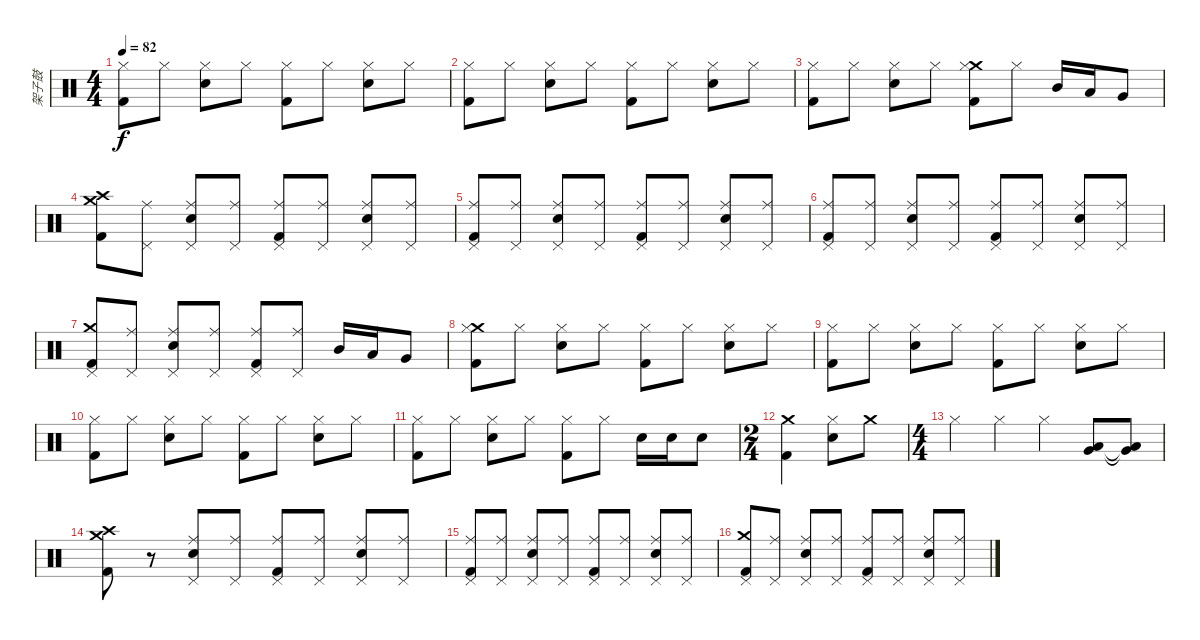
\track ("架子鼓" "架子鼓") {instrument percussion}
\staff {score}
\articulation defaults
\ts (4 4)
\tempo 82
\clef neutral
\ks c
("Hi-Hat (closed)" "Kick (hit) 2").8{dy f} "Hi-Hat (closed)".8 ("Hi-Hat (closed)" "Snare (hit) 2").8 "Hi-Hat (closed)".8 ("Hi-Hat (closed)" "Kick (hit) 2").8 "Hi-Hat (closed)".8 ("Hi-Hat (closed)" "Snare (hit) 2").8 "Hi-Hat (closed)".8 |
("Hi-Hat (closed)" "Kick (hit) 2").8 "Hi-Hat (closed)".8 ("Hi-Hat (closed)" "Snare (hit) 2").8 "Hi-Hat (closed)".8 ("Hi-Hat (closed)" "Kick (hit) 2").8 "Hi-Hat (closed)".8 ("Hi-Hat (closed)" "Snare (hit) 2").8 "Hi-Hat (closed)".8 |
("Hi-Hat (closed)" "Kick (hit) 2").8 "Hi-Hat (closed)".8 ("Hi-Hat (closed)" "Snare (hit) 2").8 "Hi-Hat (closed)".8 ("Crash medium (hit)" "Hi-Hat (closed)" "Kick (hit) 2").8 "Hi-Hat (closed)".8 "Mid Tom (hit)".16 "Low Tom (hit)".16 "Very Low Tom (hit)".8 |
("Crash medium (hit)" "Crash high (hit)" "Kick (hit) 2").8 ("Ride (middle)" "Pedal Hi-Hat (hit)").8 ("Ride (middle)" "Pedal Hi-Hat (hit)" "Snare (hit) 2").8 ("Ride (middle)" "Pedal Hi-Hat (hit)").8 ("Ride (middle)" "Pedal Hi-Hat (hit)" "Kick (hit) 2").8 ("Ride (middle)" "Pedal Hi-Hat (hit)").8 ("Ride (middle)" "Pedal Hi-Hat (hit)" "Snare (hit) 2").8 ("Ride (middle)" "Pedal Hi-Hat (hit)").8 |
("Ride (middle)" "Pedal Hi-Hat (hit)" "Kick (hit) 2").8 ("Ride (middle)" "Pedal Hi-Hat (hit)").8 ("Ride (middle)" "Pedal Hi-Hat (hit)" "Snare (hit) 2").8 ("Ride (middle)" "Pedal Hi-Hat (hit)").8 ("Ride (middle)" "Pedal Hi-Hat (hit)" "Kick (hit) 2").8 ("Ride (middle)" "Pedal Hi-Hat (hit)").8 ("Ride (middle)" "Pedal Hi-Hat (hit)" "Snare (hit) 2").8 ("Ride (middle)" "Pedal Hi-Hat (hit)").8 |
("Ride (middle)" "Pedal Hi-Hat (hit)" "Kick (hit) 2").8 ("Ride (middle)" "Pedal Hi-Hat (hit)").8 ("Ride (middle)" "Pedal Hi-Hat (hit)" "Snare (hit) 2").8 ("Ride (middle)" "Pedal Hi-Hat (hit)").8 ("Ride (middle)" "Pedal Hi-Hat (hit)" "Kick (hit) 2").8 ("Ride (middle)" "Pedal Hi-Hat (hit)").8 ("Ride (middle)" "Pedal Hi-Hat (hit)" "Snare (hit) 2").8 ("Ride (middle)" "Pedal Hi-Hat (hit)").8 |
("Crash medium (hit)" "Pedal Hi-Hat (hit)" "Kick (hit) 2").8 ("Ride (middle)" "Pedal Hi-Hat (hit)").8 ("Ride (middle)" "Pedal Hi-Hat (hit)" "Snare (hit) 2").8 ("Ride (middle)" "Pedal Hi-Hat (hit)").8 ("Ride (middle)" "Pedal Hi-Hat (hit)" "Kick (hit) 2").8 ("Ride (middle)" "Pedal Hi-Hat (hit)").8 "Mid Tom (hit)".16 "Low Tom (hit)".16 "Very Low Tom (hit)".8 |
("Crash medium (hit)" "Hi-Hat (closed)" "Kick (hit) 2").8 "Hi-Hat (closed)".8 ("Hi-Hat (closed)" "Snare (hit) 2").8 "Hi-Hat (closed)".8 ("Hi-Hat (closed)" "Kick (hit) 2").8 "Hi-Hat (closed)".8 ("Hi-Hat (closed)" "Snare (hit) 2").8 "Hi-Hat (closed)".8 |
("Hi-Hat (closed)" "Kick (hit) 2").8 "Hi-Hat (closed)".8 ("Hi-Hat (closed)" "Snare (hit) 2").8 "Hi-Hat (closed)".8 ("Hi-Hat (closed)" "Kick (hit) 2").8 "Hi-Hat (closed)".8 ("Hi-Hat (closed)" "Snare (hit) 2").8 "Hi-Hat (closed)".8 |
("Hi-Hat (closed)" "Kick (hit) 2").8 "Hi-Hat (closed)".8 ("Hi-Hat (closed)" "Snare (hit) 2").8 "Hi-Hat (closed)".8 ("Hi-Hat (closed)" "Kick (hit) 2").8 "Hi-Hat (closed)".8 ("Hi-Hat (closed)" "Snare (hit) 2").8 "Hi-Hat (closed)".8 |
("Hi-Hat (closed)" "Kick (hit) 2").8 "Hi-Hat (closed)".8 ("Hi-Hat (closed)" "Snare (hit) 2").8 "Hi-Hat (closed)".8 ("Hi-Hat (closed)" "Kick (hit) 2").8 "Hi-Hat (closed)".8 "Snare (hit) 2".16 "Snare (hit) 2".16 "Snare (hit) 2".8 |
\ts (2 4)
("Crash medium (hit)" "Kick (hit) 2").4 ("Hi-Hat (closed)" "Snare (hit) 2").8 "Crash medium (hit)".8 |
\ts (4 4)
"Hi-Hat (closed)".4 "Hi-Hat (closed)".4 "Hi-Hat (closed)".4 ("Low Tom (hit)" "Very Low Tom (hit)").8 ("Low Tom (hit)"{t} "Very Low Tom (hit)"{t}).8 |
("Crash medium (hit)" "Crash high (hit)" "Kick (hit) 2").8 r.8 ("Ride (middle)" "Pedal Hi-Hat (hit)" "Snare (hit) 2").8 ("Ride (middle)" "Pedal Hi-Hat (hit)").8 ("Ride (middle)" "Pedal Hi-Hat (hit)" "Kick (hit) 2").8 ("Ride (middle)" "Pedal Hi-Hat (hit)").8 ("Ride (middle)" "Pedal Hi-Hat (hit)" "Snare (hit) 2").8 ("Ride (middle)" "Pedal Hi-Hat (hit)").8 |
("Ride (middle)" "Pedal Hi-Hat (hit)" "Kick (hit) 2").8 ("Ride (middle)" "Pedal Hi-Hat (hit)").8 ("Ride (middle)" "Pedal Hi-Hat (hit)" "Snare (hit) 2").8 ("Ride (middle)" "Pedal Hi-Hat (hit)").8 ("Ride (middle)" "Pedal Hi-Hat (hit)" "Kick (hit) 2").8 ("Ride (middle)" "Pedal Hi-Hat (hit)").8 ("Ride (middle)" "Pedal Hi-Hat (hit)" "Snare (hit) 2").8 ("Ride (middle)" "Pedal Hi-Hat (hit)").8 |
("Crash medium (hit)" "Pedal Hi-Hat (hit)" "Kick (hit) 2").8 ("Ride (middle)" "Pedal Hi-Hat (hit)").8 ("Ride (middle)" "Pedal Hi-Hat (hit)" "Snare (hit) 2").8 ("Ride (middle)" "Pedal Hi-Hat (hit)").8 ("Ride (middle)" "Pedal Hi-Hat (hit)" "Kick (hit) 2").8 ("Ride (middle)" "Pedal Hi-Hat (hit)").8 ("Ride (middle)" "Pedal Hi-Hat (hit)" "Snare (hit) 2").8 ("Ride (middle)" "Pedal Hi-Hat (hit)").8
